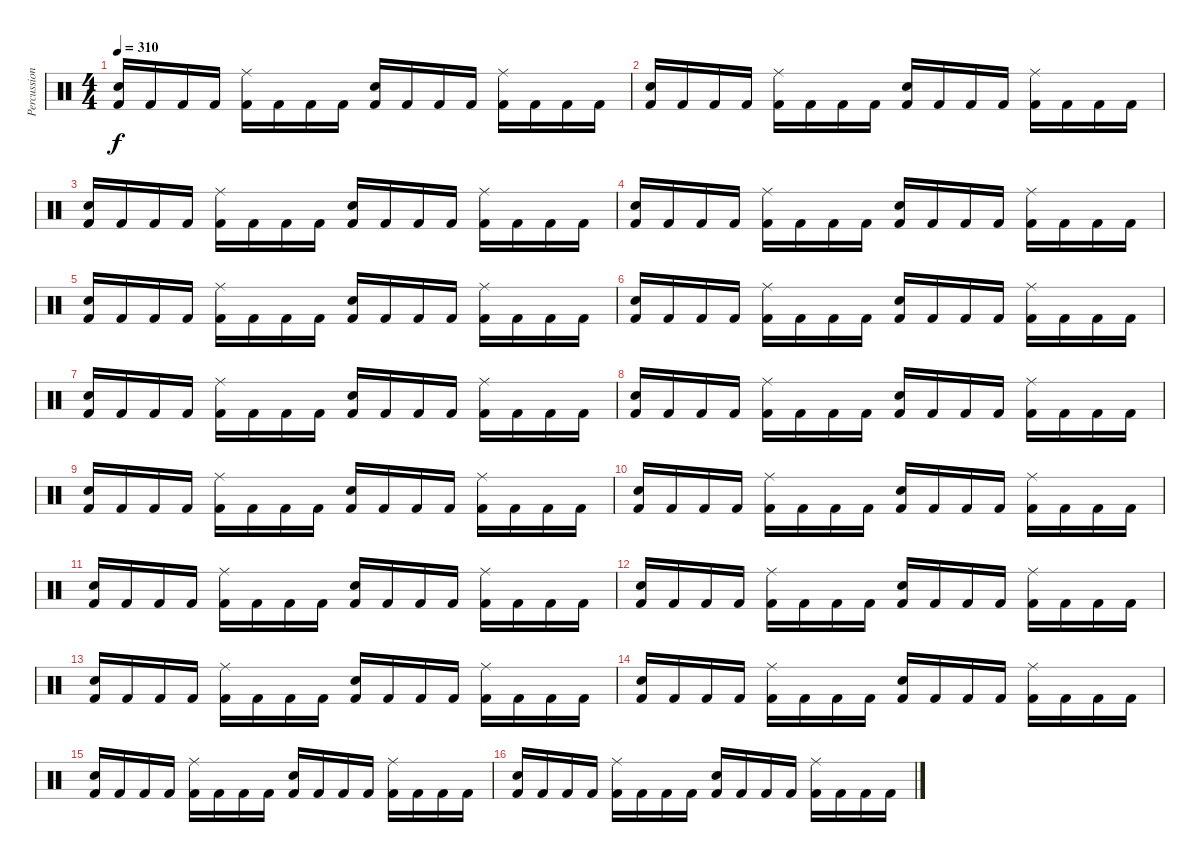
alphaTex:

\track ("Percussions" "Percussion") {instrument percussion}
\staff {score}
\articulation defaults
\ts (4 4)
\tempo 310
\clef neutral
\ks c
("Snare (hit) 2" "Kick (hit) 2").16{dy f} "Kick (hit) 2".16 "Kick (hit) 2".16 "Kick (hit) 2".16 ("Ride (middle)" "Kick (hit) 2").16 "Kick (hit) 2".16 "Kick (hit) 2".16 "Kick (hit) 2".16 ("Snare (hit) 2" "Kick (hit) 2").16 "Kick (hit) 2".16 "Kick (hit) 2".16 "Kick (hit) 2".16 ("Ride (middle)" "Kick (hit) 2").16 "Kick (hit) 2".16 "Kick (hit) 2".16 "Kick (hit) 2".16 |
("Snare (hit) 2" "Kick (hit) 2").16 "Kick (hit) 2".16 "Kick (hit) 2".16 "Kick (hit) 2".16 ("Ride (middle)" "Kick (hit) 2").16 "Kick (hit) 2".16 "Kick (hit) 2".16 "Kick (hit) 2".16 ("Snare (hit) 2" "Kick (hit) 2").16 "Kick (hit) 2".16 "Kick (hit) 2".16 "Kick (hit) 2".16 ("Ride (middle)" "Kick (hit) 2").16 "Kick (hit) 2".16 "Kick (hit) 2".16 "Kick (hit) 2".16 |
("Snare (hit) 2" "Kick (hit) 2").16 "Kick (hit) 2".16 "Kick (hit) 2".16 "Kick (hit) 2".16 ("Ride (middle)" "Kick (hit) 2").16 "Kick (hit) 2".16 "Kick (hit) 2".16 "Kick (hit) 2".16 ("Snare (hit) 2" "Kick (hit) 2").16 "Kick (hit) 2".16 "Kick (hit) 2".16 "Kick (hit) 2".16 ("Ride (middle)" "Kick (hit) 2").16 "Kick (hit) 2".16 "Kick (hit) 2".16 "Kick (hit) 2".16 |
("Snare (hit) 2" "Kick (hit) 2").16 "Kick (hit) 2".16 "Kick (hit) 2".16 "Kick (hit) 2".16 ("Ride (middle)" "Kick (hit) 2").16 "Kick (hit) 2".16 "Kick (hit) 2".16 "Kick (hit) 2".16 ("Snare (hit) 2" "Kick (hit) 2").16 "Kick (hit) 2".16 "Kick (hit) 2".16 "Kick (hit) 2".16 ("Ride (middle)" "Kick (hit) 2").16 "Kick (hit) 2".16 "Kick (hit) 2".16 "Kick (hit) 2".16 |
("Snare (hit) 2" "Kick (hit) 2").16 "Kick (hit) 2".16 "Kick (hit) 2".16 "Kick (hit) 2".16 ("Ride (middle)" "Kick (hit) 2").16 "Kick (hit) 2".16 "Kick (hit) 2".16 "Kick (hit) 2".16 ("Snare (hit) 2" "Kick (hit) 2").16 "Kick (hit) 2".16 "Kick (hit) 2".16 "Kick (hit) 2".16 ("Ride (middle)" "Kick (hit) 2").16 "Kick (hit) 2".16 "Kick (hit) 2".16 "Kick (hit) 2".16 |
("Snare (hit) 2" "Kick (hit) 2").16 "Kick (hit) 2".16 "Kick (hit) 2".16 "Kick (hit) 2".16 ("Ride (middle)" "Kick (hit) 2").16 "Kick (hit) 2".16 "Kick (hit) 2".16 "Kick (hit) 2".16 ("Snare (hit) 2" "Kick (hit) 2").16 "Kick (hit) 2".16 "Kick (hit) 2".16 "Kick (hit) 2".16 ("Ride (middle)" "Kick (hit) 2").16 "Kick (hit) 2".16 "Kick (hit) 2".16 "Kick (hit) 2".16 |
("Snare (hit) 2" "Kick (hit) 2").16 "Kick (hit) 2".16 "Kick (hit) 2".16 "Kick (hit) 2".16 ("Ride (middle)" "Kick (hit) 2").16 "Kick (hit) 2".16 "Kick (hit) 2".16 "Kick (hit) 2".16 ("Snare (hit) 2" "Kick (hit) 2").16 "Kick (hit) 2".16 "Kick (hit) 2".16 "Kick (hit) 2".16 ("Ride (middle)" "Kick (hit) 2").16 "Kick (hit) 2".16 "Kick (hit) 2".16 "Kick (hit) 2".16 |
("Snare (hit) 2" "Kick (hit) 2").16 "Kick (hit) 2".16 "Kick (hit) 2".16 "Kick (hit) 2".16 ("Ride (middle)" "Kick (hit) 2").16 "Kick (hit) 2".16 "Kick (hit) 2".16 "Kick (hit) 2".16 ("Snare (hit) 2" "Kick (hit) 2").16 "Kick (hit) 2".16 "Kick (hit) 2".16 "Kick (hit) 2".16 ("Ride (middle)" "Kick (hit) 2").16 "Kick (hit) 2".16 "Kick (hit) 2".16 "Kick (hit) 2".16 |
("Snare (hit) 2" "Kick (hit) 2").16 "Kick (hit) 2".16 "Kick (hit) 2".16 "Kick (hit) 2".16 ("Ride (middle)" "Kick (hit) 2").16 "Kick (hit) 2".16 "Kick (hit) 2".16 "Kick (hit) 2".16 ("Snare (hit) 2" "Kick (hit) 2").16 "Kick (hit) 2".16 "Kick (hit) 2".16 "Kick (hit) 2".16 ("Ride (middle)" "Kick (hit) 2").16 "Kick (hit) 2".16 "Kick (hit) 2".16 "Kick (hit) 2".16 |
("Snare (hit) 2" "Kick (hit) 2").16 "Kick (hit) 2".16 "Kick (hit) 2".16 "Kick (hit) 2".16 ("Ride (middle)" "Kick (hit) 2").16 "Kick (hit) 2".16 "Kick (hit) 2".16 "Kick (hit) 2".16 ("Snare (hit) 2" "Kick (hit) 2").16 "Kick (hit) 2".16 "Kick (hit) 2".16 "Kick (hit) 2".16 ("Ride (middle)" "Kick (hit) 2").16 "Kick (hit) 2".16 "Kick (hit) 2".16 "Kick (hit) 2".16 |
("Snare (hit) 2" "Kick (hit) 2").16 "Kick (hit) 2".16 "Kick (hit) 2".16 "Kick (hit) 2".16 ("Ride (middle)" "Kick (hit) 2").16 "Kick (hit) 2".16 "Kick (hit) 2".16 "Kick (hit) 2".16 ("Snare (hit) 2" "Kick (hit) 2").16 "Kick (hit) 2".16 "Kick (hit) 2".16 "Kick (hit) 2".16 ("Ride (middle)" "Kick (hit) 2").16 "Kick (hit) 2".16 "Kick (hit) 2".16 "Kick (hit) 2".16 |
("Snare (hit) 2" "Kick (hit) 2").16 "Kick (hit) 2".16 "Kick (hit) 2".16 "Kick (hit) 2".16 ("Ride (middle)" "Kick (hit) 2").16 "Kick (hit) 2".16 "Kick (hit) 2".16 "Kick (hit) 2".16 ("Snare (hit) 2" "Kick (hit) 2").16 "Kick (hit) 2".16 "Kick (hit) 2".16 "Kick (hit) 2".16 ("Ride (middle)" "Kick (hit) 2").16 "Kick (hit) 2".16 "Kick (hit) 2".16 "Kick (hit) 2".16 |
("Snare (hit) 2" "Kick (hit) 2").16 "Kick (hit) 2".16 "Kick (hit) 2".16 "Kick (hit) 2".16 ("Ride (middle)" "Kick (hit) 2").16 "Kick (hit) 2".16 "Kick (hit) 2".16 "Kick (hit) 2".16 ("Snare (hit) 2" "Kick (hit) 2").16 "Kick (hit) 2".16 "Kick (hit) 2".16 "Kick (hit) 2".16 ("Ride (middle)" "Kick (hit) 2").16 "Kick (hit) 2".16 "Kick (hit) 2".16 "Kick (hit) 2".16 |
("Snare (hit) 2" "Kick (hit) 2").16 "Kick (hit) 2".16 "Kick (hit) 2".16 "Kick (hit) 2".16 ("Ride (middle)" "Kick (hit) 2").16 "Kick (hit) 2".16 "Kick (hit) 2".16 "Kick (hit) 2".16 ("Snare (hit) 2" "Kick (hit) 2").16 "Kick (hit) 2".16 "Kick (hit) 2".16 "Kick (hit) 2".16 ("Ride (middle)" "Kick (hit) 2").16 "Kick (hit) 2".16 "Kick (hit) 2".16 "Kick (hit) 2".16 |
("Snare (hit) 2" "Kick (hit) 2").16 "Kick (hit) 2".16 "Kick (hit) 2".16 "Kick (hit) 2".16 ("Ride (middle)" "Kick (hit) 2").16 "Kick (hit) 2".16 "Kick (hit) 2".16 "Kick (hit) 2".16 ("Snare (hit) 2" "Kick (hit) 2").16 "Kick (hit) 2".16 "Kick (hit) 2".16 "Kick (hit) 2".16 ("Ride (middle)" "Kick (hit) 2").16 "Kick (hit) 2".16 "Kick (hit) 2".16 "Kick (hit) 2".16 |
("Snare (hit) 2" "Kick (hit) 2").16 "Kick (hit) 2".16 "Kick (hit) 2".16 "Kick (hit) 2".16 ("Ride (middle)" "Kick (hit) 2").16 "Kick (hit) 2".16 "Kick (hit) 2".16 "Kick (hit) 2".16 ("Snare (hit) 2" "Kick (hit) 2").16 "Kick (hit) 2".16 "Kick (hit) 2".16 "Kick (hit) 2".16 ("Ride (middle)" "Kick (hit) 2").16 "Kick (hit) 2".16 "Kick (hit) 2".16 "Kick (hit) 2".16
